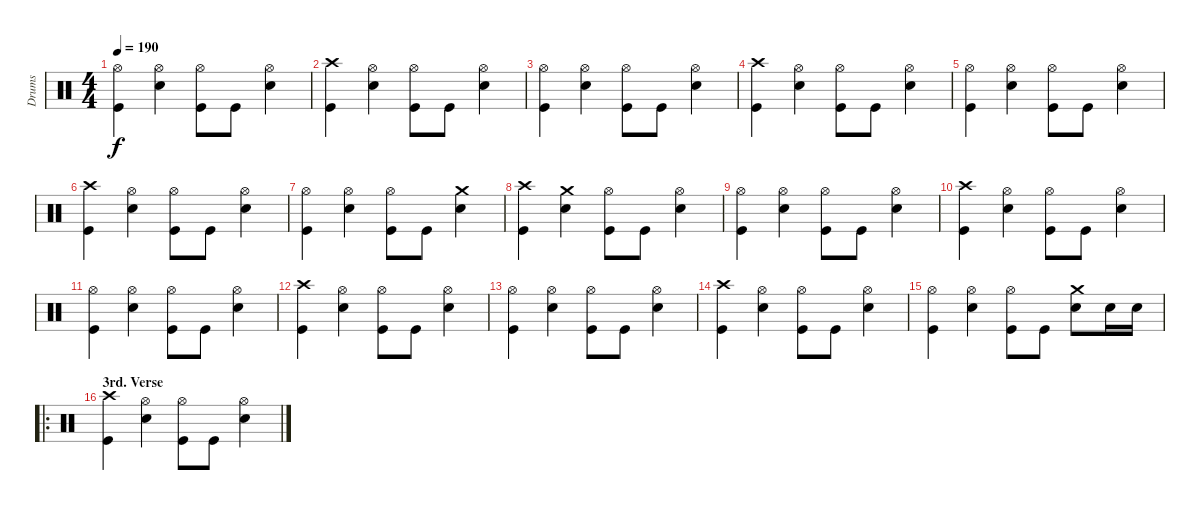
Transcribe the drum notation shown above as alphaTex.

\track ("Drums" "Drums") {instrument percussion}
\staff {score}
\articulation defaults
\ts (4 4)
\tempo 190
\clef neutral
\ks c
("Hi-Hat (open)" "Kick (hit)").4{dy f} ("Hi-Hat (open)" "Snare (hit) 2").4 ("Hi-Hat (open)" "Kick (hit)").8 "Kick (hit)".8 ("Hi-Hat (open)" "Snare (hit) 2").4 |
("Crash high (hit)" "Kick (hit)").4 ("Hi-Hat (open)" "Snare (hit) 2").4 ("Hi-Hat (open)" "Kick (hit)").8 "Kick (hit)".8 ("Hi-Hat (open)" "Snare (hit) 2").4 |
("Hi-Hat (open)" "Kick (hit)").4 ("Hi-Hat (open)" "Snare (hit) 2").4 ("Hi-Hat (open)" "Kick (hit)").8 "Kick (hit)".8 ("Hi-Hat (open)" "Snare (hit) 2").4 |
("Crash high (hit)" "Kick (hit)").4 ("Hi-Hat (open)" "Snare (hit) 2").4 ("Hi-Hat (open)" "Kick (hit)").8 "Kick (hit)".8 ("Hi-Hat (open)" "Snare (hit) 2").4 |
("Hi-Hat (open)" "Kick (hit)").4 ("Hi-Hat (open)" "Snare (hit) 2").4 ("Hi-Hat (open)" "Kick (hit)").8 "Kick (hit)".8 ("Hi-Hat (open)" "Snare (hit) 2").4 |
("Crash high (hit)" "Kick (hit)").4 ("Hi-Hat (open)" "Snare (hit) 2").4 ("Hi-Hat (open)" "Kick (hit)").8 "Kick (hit)".8 ("Hi-Hat (open)" "Snare (hit) 2").4 |
("Hi-Hat (open)" "Kick (hit)").4 ("Hi-Hat (open)" "Snare (hit) 2").4 ("Hi-Hat (open)" "Kick (hit)").8 "Kick (hit)".8 ("Crash medium (hit)" "Snare (hit) 2").4 |
("Crash high (hit)" "Kick (hit)").4 ("Crash medium (hit)" "Snare (hit) 2").4 ("Hi-Hat (open)" "Kick (hit)").8 "Kick (hit)".8 ("Hi-Hat (open)" "Snare (hit) 2").4 |
("Hi-Hat (open)" "Kick (hit)").4 ("Hi-Hat (open)" "Snare (hit) 2").4 ("Hi-Hat (open)" "Kick (hit)").8 "Kick (hit)".8 ("Hi-Hat (open)" "Snare (hit) 2").4 |
("Crash high (hit)" "Kick (hit)").4 ("Hi-Hat (open)" "Snare (hit) 2").4 ("Hi-Hat (open)" "Kick (hit)").8 "Kick (hit)".8 ("Hi-Hat (open)" "Snare (hit) 2").4 |
("Hi-Hat (open)" "Kick (hit)").4 ("Hi-Hat (open)" "Snare (hit) 2").4 ("Hi-Hat (open)" "Kick (hit)").8 "Kick (hit)".8 ("Hi-Hat (open)" "Snare (hit) 2").4 |
("Crash high (hit)" "Kick (hit)").4 ("Hi-Hat (open)" "Snare (hit) 2").4 ("Hi-Hat (open)" "Kick (hit)").8 "Kick (hit)".8 ("Hi-Hat (open)" "Snare (hit) 2").4 |
("Hi-Hat (open)" "Kick (hit)").4 ("Hi-Hat (open)" "Snare (hit) 2").4 ("Hi-Hat (open)" "Kick (hit)").8 "Kick (hit)".8 ("Hi-Hat (open)" "Snare (hit) 2").4 |
("Crash high (hit)" "Kick (hit)").4 ("Hi-Hat (open)" "Snare (hit) 2").4 ("Hi-Hat (open)" "Kick (hit)").8 "Kick (hit)".8 ("Hi-Hat (open)" "Snare (hit) 2").4 |
("Hi-Hat (open)" "Kick (hit)").4 ("Hi-Hat (open)" "Snare (hit) 2").4 ("Hi-Hat (open)" "Kick (hit)").8 "Kick (hit)".8 ("Crash medium (hit)" "Snare (hit) 2").8 "Snare (hit) 2".16 "Snare (hit) 2".16 |
\ro
\section ("" "3rd. Verse")
("Crash high (hit)" "Kick (hit)").4 ("Hi-Hat (open)" "Snare (hit) 2").4 ("Hi-Hat (open)" "Kick (hit)").8 "Kick (hit)".8 ("Hi-Hat (open)" "Snare (hit) 2").4
